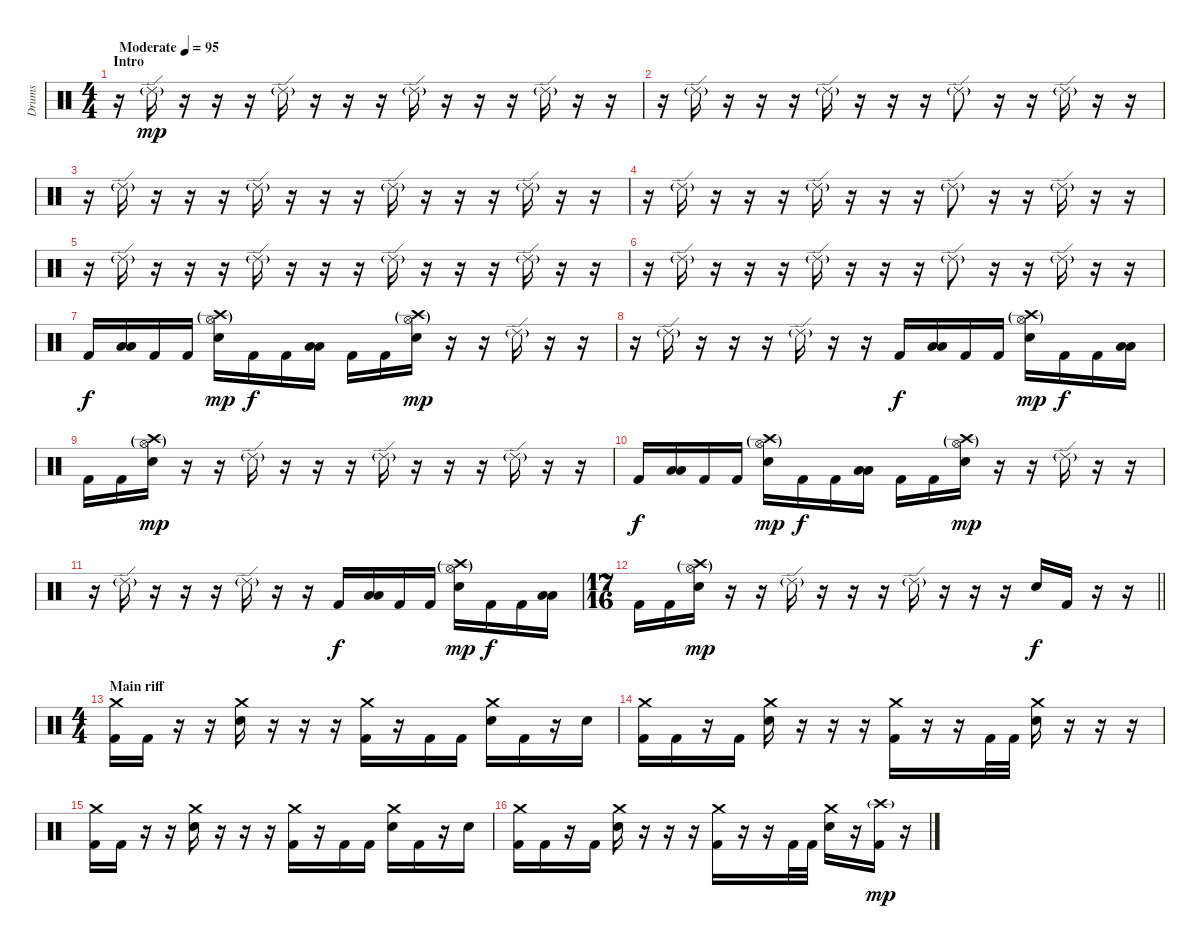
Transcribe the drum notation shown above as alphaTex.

\track ("Drums" "Drums") {instrument percussion}
\staff {score}
\articulation defaults
\ts (4 4)
\section ("" "Intro")
\tempo (95 "Moderate")
\clef neutral
\ks c
r.16{dy mp} "Ride (edge) 2"{g}.16 r.16 r.16 r.16 "Ride (edge) 2"{g}.16 r.16 r.16 r.16 "Ride (edge) 2"{g}.16 r.16 r.16 r.16 "Ride (edge) 2"{g}.16 r.16 r.16 |
r.16 "Ride (edge) 2"{g}.16 r.16 r.16 r.16 "Ride (edge) 2"{g}.16 r.16 r.16 r.16 "Ride (edge) 2"{g}.8 r.16 r.16 "Ride (edge) 2"{g}.16 r.16 r.16 |
r.16 "Ride (edge) 2"{g}.16 r.16 r.16 r.16 "Ride (edge) 2"{g}.16 r.16 r.16 r.16 "Ride (edge) 2"{g}.16 r.16 r.16 r.16 "Ride (edge) 2"{g}.16 r.16 r.16 |
r.16 "Ride (edge) 2"{g}.16 r.16 r.16 r.16 "Ride (edge) 2"{g}.16 r.16 r.16 r.16 "Ride (edge) 2"{g}.8 r.16 r.16 "Ride (edge) 2"{g}.16 r.16 r.16 |
r.16 "Ride (edge) 2"{g}.16 r.16 r.16 r.16 "Ride (edge) 2"{g}.16 r.16 r.16 r.16 "Ride (edge) 2"{g}.16 r.16 r.16 r.16 "Ride (edge) 2"{g}.16 r.16 r.16 |
r.16 "Ride (edge) 2"{g}.16 r.16 r.16 r.16 "Ride (edge) 2"{g}.16 r.16 r.16 r.16 "Ride (edge) 2"{g}.8 r.16 r.16 "Ride (edge) 2"{g}.16 r.16 r.16 |
"Kick (hit) 2".16{dy f} ("Low Tom (hit)" "Low Tom (hit)").16 "Kick (hit) 2".16 "Kick (hit) 2".16 ("Crash high (hit)"{g} "Hi-Hat (open)"{g} "Electric Snare (hit)").16{dy mp} "Kick (hit) 2".16{dy f} "Kick (hit) 2".16 ("Low Tom (hit)" "Low Tom (hit)").16 "Kick (hit) 2".16 "Kick (hit) 2".16 ("Crash high (hit)"{g} "Hi-Hat (open)"{g} "Electric Snare (hit)").16{dy mp} r.16 r.16 "Ride (edge) 2"{g}.16 r.16 r.16 |
r.16 "Ride (edge) 2"{g}.16 r.16 r.16 r.16 "Ride (edge) 2"{g}.16 r.16 r.16 "Kick (hit) 2".16{dy f} ("Low Tom (hit)" "Low Tom (hit)").16 "Kick (hit) 2".16 "Kick (hit) 2".16 ("Hi-Hat (open)"{g} "Crash high (hit)"{g} "Electric Snare (hit)").16{dy mp} "Kick (hit) 2".16{dy f} "Kick (hit) 2".16 ("Low Tom (hit)" "Low Tom (hit)").16 |
"Kick (hit) 2".16 "Kick (hit) 2".16 ("Hi-Hat (open)"{g} "Crash high (hit)"{g} "Electric Snare (hit)").16{dy mp} r.16 r.16 "Ride (edge) 2"{g}.16 r.16 r.16 r.16 "Ride (edge) 2"{g}.16 r.16 r.16 r.16 "Ride (edge) 2"{g}.16 r.16 r.16 |
"Kick (hit) 2".16{dy f} ("Low Tom (hit)" "Low Tom (hit)").16 "Kick (hit) 2".16 "Kick (hit) 2".16 ("Hi-Hat (open)"{g} "Crash high (hit)"{g} "Electric Snare (hit)").16{dy mp} "Kick (hit) 2".16{dy f} "Kick (hit) 2".16 ("Low Tom (hit)" "Low Tom (hit)").16 "Kick (hit) 2".16 "Kick (hit) 2".16 ("Hi-Hat (open)"{g} "Crash high (hit)"{g} "Electric Snare (hit)").16{dy mp} r.16 r.16 "Ride (edge) 2"{g}.16 r.16 r.16 |
r.16 "Ride (edge) 2"{g}.16 r.16 r.16 r.16 "Ride (edge) 2"{g}.16 r.16 r.16 "Kick (hit) 2".16{dy f} ("Low Tom (hit)" "Low Tom (hit)").16 "Kick (hit) 2".16 "Kick (hit) 2".16 ("Hi-Hat (open)"{g} "Crash high (hit)"{g} "Electric Snare (hit)").16{dy mp} "Kick (hit) 2".16{dy f} "Kick (hit) 2".16 ("Low Tom (hit)" "Low Tom (hit)").16 |
\ts (17 16)
\barLineRight lightlight "Kick (hit) 2".16 "Kick (hit) 2".16
("Hi-Hat (open)"{g} "Crash high (hit)"{g} "Electric Snare (hit)").16{dy mp} r.16 r.16 "Ride (edge) 2"{g}.16 r.16 r.16 r.16 "Ride (edge) 2"{g}.16 r.16 r.16 r.16 "Electric Snare (hit)".16{dy f} "Kick (hit) 2".16 r.16 r.16 |
\ts (4 4)
\section ("" "Main riff")
("Crash medium (hit)" "Kick (hit) 2").16 "Kick (hit) 2".16 r.16 r.16 ("Crash medium (hit)" "Electric Snare (hit)").16 r.16 r.16 r.16 ("Crash medium (hit)" "Kick (hit) 2").16 r.16 "Kick (hit) 2".16 "Kick (hit) 2".16 ("Crash medium (hit)" "Electric Snare (hit)").16 "Kick (hit) 2".16 r.16 "Electric Snare (hit)".16 |
("Crash medium (hit)" "Kick (hit) 2").16 "Kick (hit) 2".16 r.16 "Kick (hit) 2".16 ("Crash medium (hit)" "Electric Snare (hit)").16 r.16 r.16 r.16 ("Crash medium (hit)" "Kick (hit) 2").16 r.16 r.16 "Kick (hit) 2".32 "Kick (hit) 2".32 ("Crash medium (hit)" "Electric Snare (hit)").16 r.16 r.16 r.16 |
("Crash medium (hit)" "Kick (hit) 2").16 "Kick (hit) 2".16 r.16 r.16 ("Crash medium (hit)" "Electric Snare (hit)").16 r.16 r.16 r.16 ("Crash medium (hit)" "Kick (hit) 2").16 r.16 "Kick (hit) 2".16 "Kick (hit) 2".16 ("Crash medium (hit)" "Electric Snare (hit)").16 "Kick (hit) 2".16 r.16 "Electric Snare (hit)".16 |
("Crash medium (hit)" "Kick (hit) 2").16 "Kick (hit) 2".16 r.16 "Kick (hit) 2".16 ("Crash medium (hit)" "Electric Snare (hit)").16 r.16 r.16 r.16 ("Crash medium (hit)" "Kick (hit) 2").16 r.16 r.16 "Kick (hit) 2".32 "Kick (hit) 2".32 ("Crash medium (hit)" "Electric Snare (hit)").16 r.16 ("Crash high (hit)"{g} "Kick (hit) 2").16{dy mp} r.16
